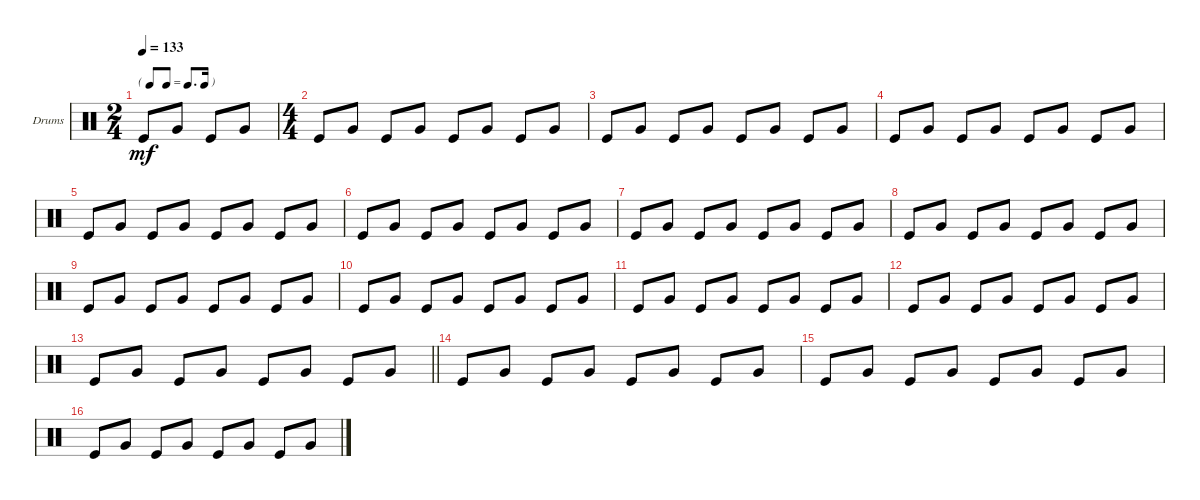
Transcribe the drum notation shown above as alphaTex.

\defaultSystemsLayout 4
\bracketExtendMode groupsimilarinstruments
\firstSystemTrackNameOrientation horizontal
\otherSystemsTrackNameOrientation horizontal
\track ("Drumkit" "Drums") {instrument percussion}
\staff {score}
\articulation defaults
\ts (2 4)
\tf dotted8th
\tempo 133
\clef neutral
\ks c "Kick (hit)".8{dy mf} "Very Low Tom (hit)".8 "Kick (hit)".8 "Very Low Tom (hit)".8
|
\ts (4 4)
"Kick (hit)".8 "Very Low Tom (hit)".8 "Kick (hit)".8 "Very Low Tom (hit)".8 "Kick (hit)".8 "Very Low Tom (hit)".8 "Kick (hit)".8 "Very Low Tom (hit)".8 |
"Kick (hit)".8 "Very Low Tom (hit)".8 "Kick (hit)".8 "Very Low Tom (hit)".8 "Kick (hit)".8 "Very Low Tom (hit)".8 "Kick (hit)".8 "Very Low Tom (hit)".8 |
"Kick (hit)".8 "Very Low Tom (hit)".8 "Kick (hit)".8 "Very Low Tom (hit)".8 "Kick (hit)".8 "Very Low Tom (hit)".8 "Kick (hit)".8 "Very Low Tom (hit)".8 |
"Kick (hit)".8 "Very Low Tom (hit)".8 "Kick (hit)".8 "Very Low Tom (hit)".8 "Kick (hit)".8 "Very Low Tom (hit)".8 "Kick (hit)".8 "Very Low Tom (hit)".8 |
"Kick (hit)".8 "Very Low Tom (hit)".8 "Kick (hit)".8 "Very Low Tom (hit)".8 "Kick (hit)".8 "Very Low Tom (hit)".8 "Kick (hit)".8 "Very Low Tom (hit)".8 |
"Kick (hit)".8 "Very Low Tom (hit)".8 "Kick (hit)".8 "Very Low Tom (hit)".8 "Kick (hit)".8 "Very Low Tom (hit)".8 "Kick (hit)".8 "Very Low Tom (hit)".8 |
"Kick (hit)".8 "Very Low Tom (hit)".8 "Kick (hit)".8 "Very Low Tom (hit)".8 "Kick (hit)".8 "Very Low Tom (hit)".8 "Kick (hit)".8 "Very Low Tom (hit)".8 |
"Kick (hit)".8 "Very Low Tom (hit)".8 "Kick (hit)".8 "Very Low Tom (hit)".8 "Kick (hit)".8 "Very Low Tom (hit)".8 "Kick (hit)".8 "Very Low Tom (hit)".8 |
"Kick (hit)".8 "Very Low Tom (hit)".8 "Kick (hit)".8 "Very Low Tom (hit)".8 "Kick (hit)".8 "Very Low Tom (hit)".8 "Kick (hit)".8 "Very Low Tom (hit)".8 |
"Kick (hit)".8 "Very Low Tom (hit)".8 "Kick (hit)".8 "Very Low Tom (hit)".8 "Kick (hit)".8 "Very Low Tom (hit)".8 "Kick (hit)".8 "Very Low Tom (hit)".8 |
"Kick (hit)".8 "Very Low Tom (hit)".8 "Kick (hit)".8 "Very Low Tom (hit)".8 "Kick (hit)".8 "Very Low Tom (hit)".8 "Kick (hit)".8 "Very Low Tom (hit)".8 |
\barLineRight lightlight "Kick (hit)".8 "Very Low Tom (hit)".8 "Kick (hit)".8 "Very Low Tom (hit)".8 "Kick (hit)".8 "Very Low Tom (hit)".8 "Kick (hit)".8 "Very Low Tom (hit)".8
|
"Kick (hit)".8 "Very Low Tom (hit)".8 "Kick (hit)".8 "Very Low Tom (hit)".8 "Kick (hit)".8 "Very Low Tom (hit)".8 "Kick (hit)".8 "Very Low Tom (hit)".8 |
"Kick (hit)".8 "Very Low Tom (hit)".8 "Kick (hit)".8 "Very Low Tom (hit)".8 "Kick (hit)".8 "Very Low Tom (hit)".8 "Kick (hit)".8 "Very Low Tom (hit)".8 |
"Kick (hit)".8 "Very Low Tom (hit)".8 "Kick (hit)".8 "Very Low Tom (hit)".8 "Kick (hit)".8 "Very Low Tom (hit)".8 "Kick (hit)".8 "Very Low Tom (hit)".8
